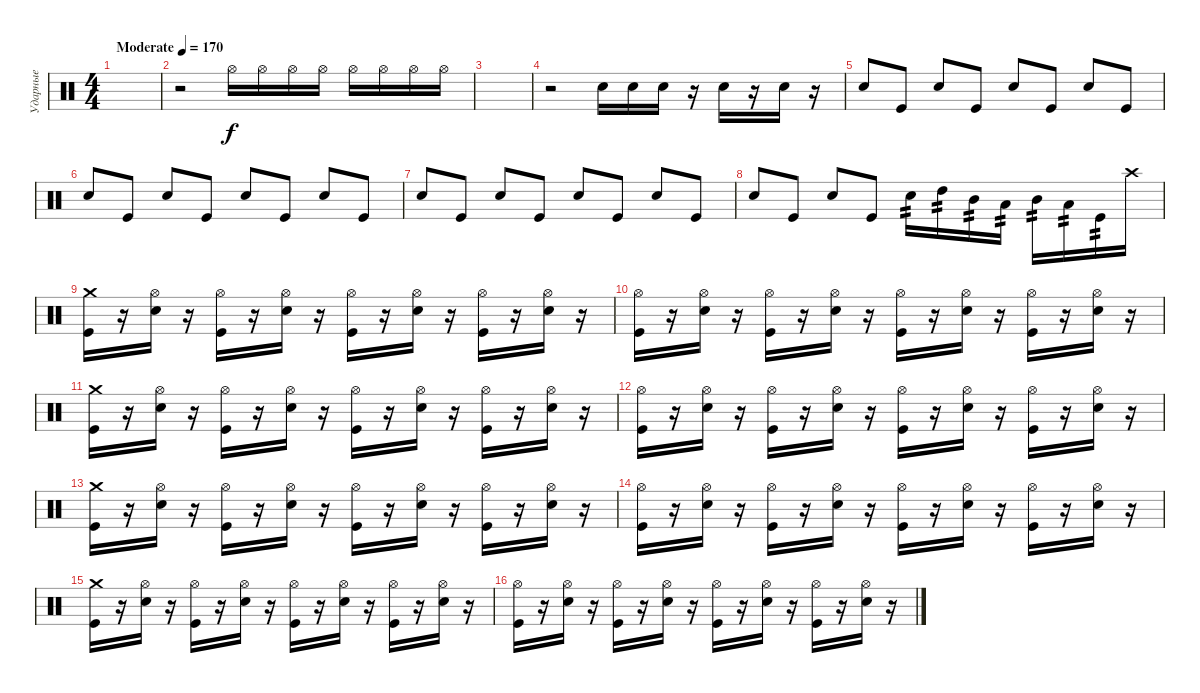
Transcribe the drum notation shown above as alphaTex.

\track ("Ударные" "Ударные") {instrument percussion}
\staff {score}
\articulation defaults
\ts (4 4)
\tempo (170 "Moderate")
\clef neutral
\ks c
|
r.2 "Hi-Hat (open)".16 "Hi-Hat (open)".16 "Hi-Hat (open)".16 "Hi-Hat (open)".16 "Hi-Hat (open)".16 "Hi-Hat (open)".16 "Hi-Hat (open)".16 "Hi-Hat (open)".16 |
|
r.2 "Electric Snare (hit)".16 "Electric Snare (hit)".16 "Electric Snare (hit)".16 r.16 "Electric Snare (hit)".16 r.16 "Electric Snare (hit)".16 r.16 |
"Electric Snare (hit)".8 "Kick (hit)".8 "Electric Snare (hit)".8 "Kick (hit)".8 "Electric Snare (hit)".8 "Kick (hit)".8 "Electric Snare (hit)".8 "Kick (hit)".8 |
"Electric Snare (hit)".8 "Kick (hit)".8 "Electric Snare (hit)".8 "Kick (hit)".8 "Electric Snare (hit)".8 "Kick (hit)".8 "Electric Snare (hit)".8 "Kick (hit)".8 |
"Electric Snare (hit)".8 "Kick (hit)".8 "Electric Snare (hit)".8 "Kick (hit)".8 "Electric Snare (hit)".8 "Kick (hit)".8 "Electric Snare (hit)".8 "Kick (hit)".8 |
"Electric Snare (hit)".8 "Kick (hit)".8 "Electric Snare (hit)".8 "Kick (hit)".8 "Electric Snare (hit)".16{tp 2} "High Tom (hit)".16{tp 2} "Mid Tom (hit)".16{tp 2} "Low Tom (hit)".16{tp 2} "Mid Tom (hit)".16{tp 2} "Low Tom (hit)".16{tp 2} "Kick (hit)".16{tp 2} "Crash high (hit)".16 |
("Crash medium (hit)" "Kick (hit)").16 r.16 ("Hi-Hat (open)" "Electric Snare (hit)").16 r.16 ("Hi-Hat (open)" "Kick (hit)").16 r.16 ("Hi-Hat (open)" "Electric Snare (hit)").16 r.16 ("Hi-Hat (open)" "Kick (hit)").16 r.16 ("Hi-Hat (open)" "Electric Snare (hit)").16 r.16 ("Hi-Hat (open)" "Kick (hit)").16 r.16 ("Hi-Hat (open)" "Electric Snare (hit)").16 r.16 |
("Hi-Hat (open)" "Kick (hit)").16 r.16 ("Hi-Hat (open)" "Electric Snare (hit)").16 r.16 ("Hi-Hat (open)" "Kick (hit)").16 r.16 ("Hi-Hat (open)" "Electric Snare (hit)").16 r.16 ("Hi-Hat (open)" "Kick (hit)").16 r.16 ("Hi-Hat (open)" "Electric Snare (hit)").16 r.16 ("Hi-Hat (open)" "Kick (hit)").16 r.16 ("Hi-Hat (open)" "Electric Snare (hit)").16 r.16 |
("Crash medium (hit)" "Kick (hit)").16 r.16 ("Hi-Hat (open)" "Electric Snare (hit)").16 r.16 ("Hi-Hat (open)" "Kick (hit)").16 r.16 ("Hi-Hat (open)" "Electric Snare (hit)").16 r.16 ("Hi-Hat (open)" "Kick (hit)").16 r.16 ("Hi-Hat (open)" "Electric Snare (hit)").16 r.16 ("Hi-Hat (open)" "Kick (hit)").16 r.16 ("Hi-Hat (open)" "Electric Snare (hit)").16 r.16 |
("Hi-Hat (open)" "Kick (hit)").16 r.16 ("Hi-Hat (open)" "Electric Snare (hit)").16 r.16 ("Hi-Hat (open)" "Kick (hit)").16 r.16 ("Hi-Hat (open)" "Electric Snare (hit)").16 r.16 ("Hi-Hat (open)" "Kick (hit)").16 r.16 ("Hi-Hat (open)" "Electric Snare (hit)").16 r.16 ("Hi-Hat (open)" "Kick (hit)").16 r.16 ("Hi-Hat (open)" "Electric Snare (hit)").16 r.16 |
("Crash medium (hit)" "Kick (hit)").16 r.16 ("Hi-Hat (open)" "Electric Snare (hit)").16 r.16 ("Hi-Hat (open)" "Kick (hit)").16 r.16 ("Hi-Hat (open)" "Electric Snare (hit)").16 r.16 ("Hi-Hat (open)" "Kick (hit)").16 r.16 ("Hi-Hat (open)" "Electric Snare (hit)").16 r.16 ("Hi-Hat (open)" "Kick (hit)").16 r.16 ("Hi-Hat (open)" "Electric Snare (hit)").16 r.16 |
("Hi-Hat (open)" "Kick (hit)").16 r.16 ("Hi-Hat (open)" "Electric Snare (hit)").16 r.16 ("Hi-Hat (open)" "Kick (hit)").16 r.16 ("Hi-Hat (open)" "Electric Snare (hit)").16 r.16 ("Hi-Hat (open)" "Kick (hit)").16 r.16 ("Hi-Hat (open)" "Electric Snare (hit)").16 r.16 ("Hi-Hat (open)" "Kick (hit)").16 r.16 ("Hi-Hat (open)" "Electric Snare (hit)").16 r.16 |
("Crash medium (hit)" "Kick (hit)").16 r.16 ("Hi-Hat (open)" "Electric Snare (hit)").16 r.16 ("Hi-Hat (open)" "Kick (hit)").16 r.16 ("Hi-Hat (open)" "Electric Snare (hit)").16 r.16 ("Hi-Hat (open)" "Kick (hit)").16 r.16 ("Hi-Hat (open)" "Electric Snare (hit)").16 r.16 ("Hi-Hat (open)" "Kick (hit)").16 r.16 ("Hi-Hat (open)" "Electric Snare (hit)").16 r.16 |
("Hi-Hat (open)" "Kick (hit)").16 r.16 ("Hi-Hat (open)" "Electric Snare (hit)").16 r.16 ("Hi-Hat (open)" "Kick (hit)").16 r.16 ("Hi-Hat (open)" "Electric Snare (hit)").16 r.16 ("Hi-Hat (open)" "Kick (hit)").16 r.16 ("Hi-Hat (open)" "Electric Snare (hit)").16 r.16 ("Hi-Hat (open)" "Kick (hit)").16 r.16 ("Hi-Hat (open)" "Electric Snare (hit)").16 r.16
